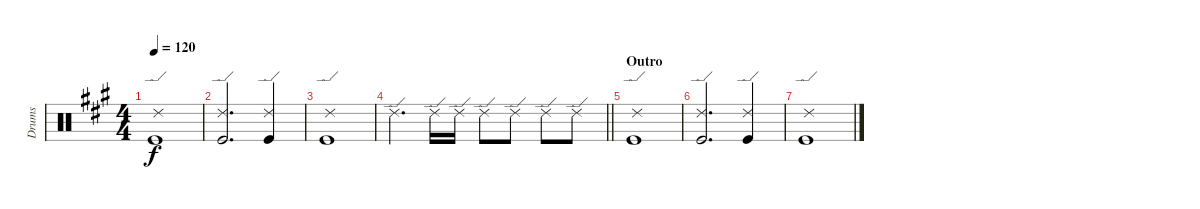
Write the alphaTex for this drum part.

\track ("Drums" "Drums") {instrument percussion}
\staff {score}
\articulation defaults
\ts (4 4)
\tempo 120
\clef neutral
\ks f#minor
("Ride (edge) 2" "Kick (hit)").1{dy f} |
("Ride (edge) 2" "Kick (hit)").2{d} ("Ride (edge) 2" "Kick (hit)").4 |
("Ride (edge) 2" "Kick (hit)").1 |
\barLineRight lightlight "Ride (edge) 2".4{d} "Ride (edge) 2".16 "Ride (edge) 2".16 "Ride (edge) 2".8 "Ride (edge) 2".8 "Ride (edge) 2".8 "Ride (edge) 2".8
|
\section ("" "Outro")
("Ride (edge) 2" "Kick (hit)").1 |
("Ride (edge) 2" "Kick (hit)").2{d} ("Ride (edge) 2" "Kick (hit)").4 |
("Ride (edge) 2" "Kick (hit)").1
